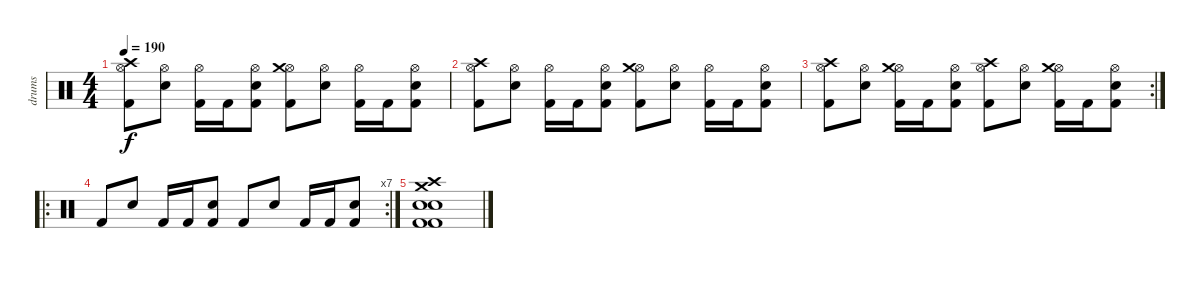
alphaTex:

\track ("drums" "drums") {instrument percussion}
\staff {score}
\articulation defaults
\ts (4 4)
\tempo 190
\clef neutral
\ks c
("Hi-Hat (open)" "Crash high (hit)" "Kick (hit) 2").8{dy f} ("Hi-Hat (open)" "Snare (hit) 2").8 ("Hi-Hat (open)" "Kick (hit) 2").16 "Kick (hit) 2".16 ("Hi-Hat (open)" "Snare (hit) 2" "Kick (hit) 2").8 ("Hi-Hat (open)" "Crash medium (hit)" "Kick (hit) 2").8 ("Hi-Hat (open)" "Snare (hit) 2").8 ("Hi-Hat (open)" "Kick (hit) 2").16 "Kick (hit) 2".16 ("Hi-Hat (open)" "Snare (hit) 2" "Kick (hit) 2").8 |
("Hi-Hat (open)" "Crash high (hit)" "Kick (hit) 2").8 ("Hi-Hat (open)" "Snare (hit) 2").8 ("Hi-Hat (open)" "Kick (hit) 2").16 "Kick (hit) 2".16 ("Hi-Hat (open)" "Snare (hit) 2" "Kick (hit) 2").8 ("Hi-Hat (open)" "Crash medium (hit)" "Kick (hit) 2").8 ("Hi-Hat (open)" "Snare (hit) 2").8 ("Hi-Hat (open)" "Kick (hit) 2").16 "Kick (hit) 2".16 ("Hi-Hat (open)" "Snare (hit) 2" "Kick (hit) 2").8 |
\rc 2
("Hi-Hat (open)" "Crash high (hit)" "Kick (hit) 2").8 ("Hi-Hat (open)" "Snare (hit) 2").8 ("Hi-Hat (open)" "Crash medium (hit)" "Kick (hit) 2").16 "Kick (hit) 2".16 ("Hi-Hat (open)" "Snare (hit) 2" "Kick (hit) 2").8 ("Hi-Hat (open)" "Crash high (hit)" "Kick (hit) 2").8 ("Hi-Hat (open)" "Snare (hit) 2").8 ("Hi-Hat (open)" "Crash medium (hit)" "Kick (hit) 2").16 "Kick (hit) 2".16 ("Hi-Hat (open)" "Snare (hit) 2" "Kick (hit) 2").8 |
\ro
\rc 7 "Kick (hit) 2".8 "Snare (hit) 2".8 "Kick (hit) 2".16 "Kick (hit) 2".16
("Snare (hit) 2" "Kick (hit) 2").8 "Kick (hit) 2".8 "Snare (hit) 2".8 "Kick (hit) 2".16 "Kick (hit) 2".16 ("Snare (hit) 2" "Kick (hit) 2").8 |
("Snare (hit) 2" "Snare (hit) 2" "Crash high (hit)" "Crash medium (hit)" "Kick (hit) 2" "Kick (hit) 2").1
